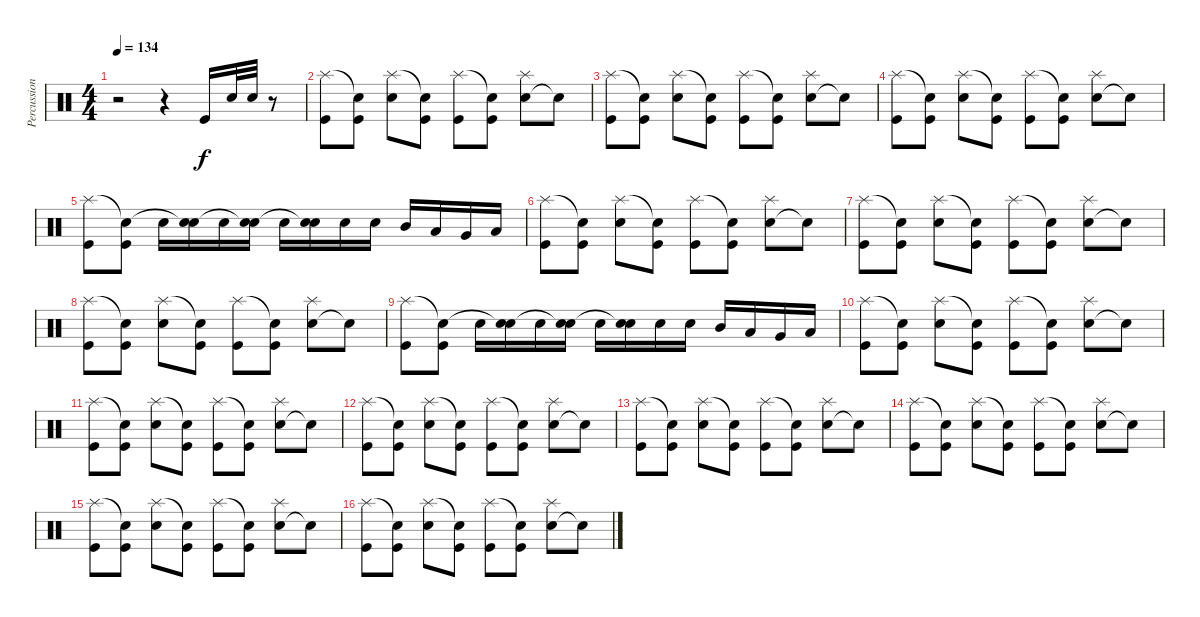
\track ("Percussion" "Percussion") {instrument percussion}
\staff {score}
\articulation defaults
\ts (4 4)
\tempo 134
\clef neutral
\ks c
r.2{dy f} r.4 "Kick (hit)".16 "Snare (hit) 2".32 "Snare (hit) 2".32 r.8 |
("Kick (hit)" "Splash (hit)").8 ("Kick (hit)" "Snare (hit)"{t}).8 ("Snare (hit) 2" "Splash (hit)").8 ("Kick (hit)" "Snare (hit)"{t}).8 ("Kick (hit)" "Splash (hit)").8 ("Kick (hit)" "Snare (hit)"{t}).8 ("Snare (hit) 2" "Splash (hit)").8 "Snare (hit)"{t}.8 |
("Kick (hit)" "Splash (hit)").8 ("Kick (hit)" "Snare (hit)"{t}).8 ("Snare (hit) 2" "Splash (hit)").8 ("Kick (hit)" "Snare (hit)"{t}).8 ("Kick (hit)" "Splash (hit)").8 ("Kick (hit)" "Snare (hit)"{t}).8 ("Snare (hit) 2" "Splash (hit)").8 "Snare (hit)"{t}.8 |
("Kick (hit)" "Splash (hit)").8 ("Kick (hit)" "Snare (hit)"{t}).8 ("Snare (hit) 2" "Splash (hit)").8 ("Kick (hit)" "Snare (hit)"{t}).8 ("Kick (hit)" "Splash (hit)").8 ("Kick (hit)" "Snare (hit)"{t}).8 ("Snare (hit) 2" "Splash (hit)").8 "Snare (hit)"{t}.8 |
("Kick (hit)" "Splash (hit)").8 ("Kick (hit)" "Snare (hit)"{t}).8 "Snare (hit) 2".16 ("Snare (hit) 2" "Snare (hit)"{t}).16 "Snare (hit) 2".16 ("Snare (hit) 2" "Snare (hit)"{t}).16 "Snare (hit) 2".16 ("Snare (hit) 2" "Snare (hit)"{t}).16 "Snare (hit) 2".16 "Snare (hit) 2".16 "Mid Tom (hit)".16 "Low Tom (hit)".16 "Very Low Tom (hit)".16 "Low Floor Tom (hit)".16 |
("Kick (hit)" "Splash (hit)").8 ("Kick (hit)" "Snare (hit)"{t}).8 ("Snare (hit) 2" "Splash (hit)").8 ("Kick (hit)" "Snare (hit)"{t}).8 ("Kick (hit)" "Splash (hit)").8 ("Kick (hit)" "Snare (hit)"{t}).8 ("Snare (hit) 2" "Splash (hit)").8 "Snare (hit)"{t}.8 |
("Kick (hit)" "Splash (hit)").8 ("Kick (hit)" "Snare (hit)"{t}).8 ("Snare (hit) 2" "Splash (hit)").8 ("Kick (hit)" "Snare (hit)"{t}).8 ("Kick (hit)" "Splash (hit)").8 ("Kick (hit)" "Snare (hit)"{t}).8 ("Snare (hit) 2" "Splash (hit)").8 "Snare (hit)"{t}.8 |
("Kick (hit)" "Splash (hit)").8 ("Kick (hit)" "Snare (hit)"{t}).8 ("Snare (hit) 2" "Splash (hit)").8 ("Kick (hit)" "Snare (hit)"{t}).8 ("Kick (hit)" "Splash (hit)").8 ("Kick (hit)" "Snare (hit)"{t}).8 ("Snare (hit) 2" "Splash (hit)").8 "Snare (hit)"{t}.8 |
("Kick (hit)" "Splash (hit)").8 ("Kick (hit)" "Snare (hit)"{t}).8 "Snare (hit) 2".16 ("Snare (hit) 2" "Snare (hit)"{t}).16 "Snare (hit) 2".16 ("Snare (hit) 2" "Snare (hit)"{t}).16 "Snare (hit) 2".16 ("Snare (hit) 2" "Snare (hit)"{t}).16 "Snare (hit) 2".16 "Snare (hit) 2".16 "Mid Tom (hit)".16 "Low Tom (hit)".16 "Very Low Tom (hit)".16 "Low Floor Tom (hit)".16 |
("Kick (hit)" "Splash (hit)").8 ("Kick (hit)" "Snare (hit)"{t}).8 ("Snare (hit) 2" "Splash (hit)").8 ("Kick (hit)" "Snare (hit)"{t}).8 ("Kick (hit)" "Splash (hit)").8 ("Kick (hit)" "Snare (hit)"{t}).8 ("Snare (hit) 2" "Splash (hit)").8 "Snare (hit)"{t}.8 |
("Kick (hit)" "Splash (hit)").8 ("Kick (hit)" "Snare (hit)"{t}).8 ("Snare (hit) 2" "Splash (hit)").8 ("Kick (hit)" "Snare (hit)"{t}).8 ("Kick (hit)" "Splash (hit)").8 ("Kick (hit)" "Snare (hit)"{t}).8 ("Snare (hit) 2" "Splash (hit)").8 "Snare (hit)"{t}.8 |
("Kick (hit)" "Splash (hit)").8 ("Kick (hit)" "Snare (hit)"{t}).8 ("Snare (hit) 2" "Splash (hit)").8 ("Kick (hit)" "Snare (hit)"{t}).8 ("Kick (hit)" "Splash (hit)").8 ("Kick (hit)" "Snare (hit)"{t}).8 ("Snare (hit) 2" "Splash (hit)").8 "Snare (hit)"{t}.8 |
("Kick (hit)" "Splash (hit)").8 ("Kick (hit)" "Snare (hit)"{t}).8 ("Snare (hit) 2" "Splash (hit)").8 ("Kick (hit)" "Snare (hit)"{t}).8 ("Kick (hit)" "Splash (hit)").8 ("Kick (hit)" "Snare (hit)"{t}).8 ("Snare (hit) 2" "Splash (hit)").8 "Snare (hit)"{t}.8 |
("Kick (hit)" "Splash (hit)").8 ("Kick (hit)" "Snare (hit)"{t}).8 ("Snare (hit) 2" "Splash (hit)").8 ("Kick (hit)" "Snare (hit)"{t}).8 ("Kick (hit)" "Splash (hit)").8 ("Kick (hit)" "Snare (hit)"{t}).8 ("Snare (hit) 2" "Splash (hit)").8 "Snare (hit)"{t}.8 |
("Kick (hit)" "Splash (hit)").8 ("Kick (hit)" "Snare (hit)"{t}).8 ("Snare (hit) 2" "Splash (hit)").8 ("Kick (hit)" "Snare (hit)"{t}).8 ("Kick (hit)" "Splash (hit)").8 ("Kick (hit)" "Snare (hit)"{t}).8 ("Snare (hit) 2" "Splash (hit)").8 "Snare (hit)"{t}.8 |
("Kick (hit)" "Splash (hit)").8 ("Kick (hit)" "Snare (hit)"{t}).8 ("Snare (hit) 2" "Splash (hit)").8 ("Kick (hit)" "Snare (hit)"{t}).8 ("Kick (hit)" "Splash (hit)").8 ("Kick (hit)" "Snare (hit)"{t}).8 ("Snare (hit) 2" "Splash (hit)").8 "Snare (hit)"{t}.8
